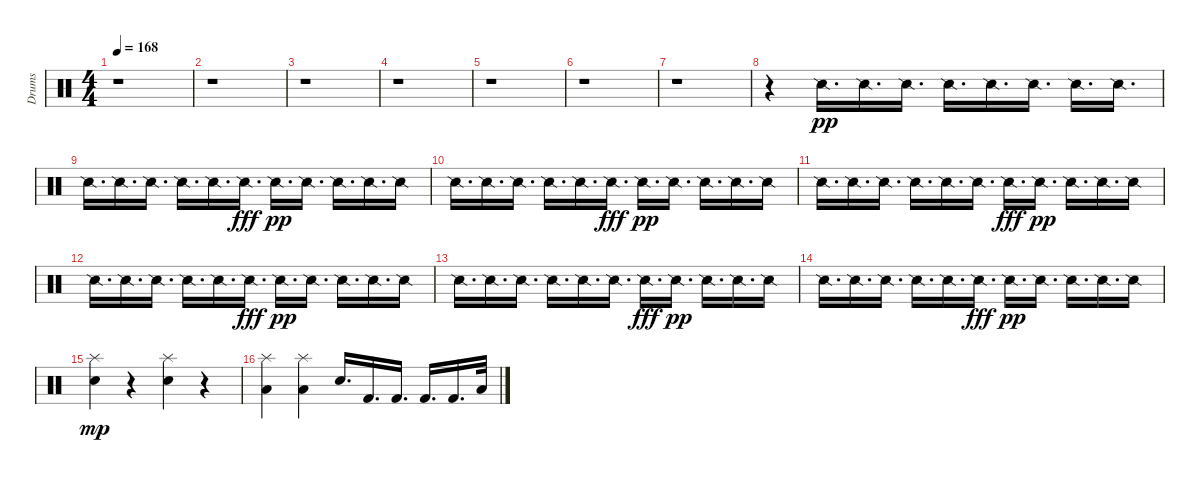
\track ("Drums" "Drums") {instrument percussion}
\staff {score}
\articulation defaults
\ts (4 4)
\tempo 168
\clef neutral
\ks c
r.1{dy f} |
r.1 |
r.1 |
r.1 |
r.1 |
r.1 |
r.1 |
r.4 "Snare (side stick) 2".16{d dy pp} "Snare (side stick) 2".16{d} "Snare (side stick) 2".16{d} "Snare (side stick) 2".16{d} "Snare (side stick) 2".16{d} "Snare (side stick) 2".16{d} "Snare (side stick) 2".16{d} "Snare (side stick) 2".16{d} |
"Snare (side stick) 2".16{d} "Snare (side stick) 2".16{d} "Snare (side stick) 2".16{d} "Snare (side stick) 2".16{d} "Snare (side stick) 2".16{d} "Snare (side stick) 2".16{d dy fff} "Snare (side stick) 2".16{d dy pp} "Snare (side stick) 2".16{d} "Snare (side stick) 2".16{d} "Snare (side stick) 2".16{d} "Snare (side stick) 2".16 |
"Snare (side stick) 2".16{d} "Snare (side stick) 2".16{d} "Snare (side stick) 2".16{d} "Snare (side stick) 2".16{d} "Snare (side stick) 2".16{d} "Snare (side stick) 2".16{d dy fff} "Snare (side stick) 2".16{d dy pp} "Snare (side stick) 2".16{d} "Snare (side stick) 2".16{d} "Snare (side stick) 2".16{d} "Snare (side stick) 2".16 |
"Snare (side stick) 2".16{d} "Snare (side stick) 2".16{d} "Snare (side stick) 2".16{d} "Snare (side stick) 2".16{d} "Snare (side stick) 2".16{d} "Snare (side stick) 2".16{d} "Snare (side stick) 2".16{d dy fff} "Snare (side stick) 2".16{d dy pp} "Snare (side stick) 2".16{d} "Snare (side stick) 2".16{d} "Snare (side stick) 2".16 |
"Snare (side stick) 2".16{d} "Snare (side stick) 2".16{d} "Snare (side stick) 2".16{d} "Snare (side stick) 2".16{d} "Snare (side stick) 2".16{d} "Snare (side stick) 2".16{d dy fff} "Snare (side stick) 2".16{d dy pp} "Snare (side stick) 2".16{d} "Snare (side stick) 2".16{d} "Snare (side stick) 2".16{d} "Snare (side stick) 2".16 |
"Snare (side stick) 2".16{d} "Snare (side stick) 2".16{d} "Snare (side stick) 2".16{d} "Snare (side stick) 2".16{d} "Snare (side stick) 2".16{d} "Snare (side stick) 2".16{d} "Snare (side stick) 2".16{d dy fff} "Snare (side stick) 2".16{d dy pp} "Snare (side stick) 2".16{d} "Snare (side stick) 2".16{d} "Snare (side stick) 2".16 |
"Snare (side stick) 2".16{d} "Snare (side stick) 2".16{d} "Snare (side stick) 2".16{d} "Snare (side stick) 2".16{d} "Snare (side stick) 2".16{d} "Snare (side stick) 2".16{d dy fff} "Snare (side stick) 2".16{d dy pp} "Snare (side stick) 2".16{d} "Snare (side stick) 2".16{d} "Snare (side stick) 2".16{d} "Snare (side stick) 2".16 |
("Splash (hit)" "Electric Snare (hit)").4{dy mp} r.4 ("Splash (hit)" "Electric Snare (hit)").4 r.4 |
("Splash (hit)" "Low Floor Tom (hit)").4 ("Splash (hit)" "Low Floor Tom (hit)").4 "Electric Snare (hit)".16{d} "Kick (hit) 2".16{d} "Kick (hit) 2".16{d} "Kick (hit) 2".16{d} "Kick (hit) 2".16{d} "Low Floor Tom (hit)".32
